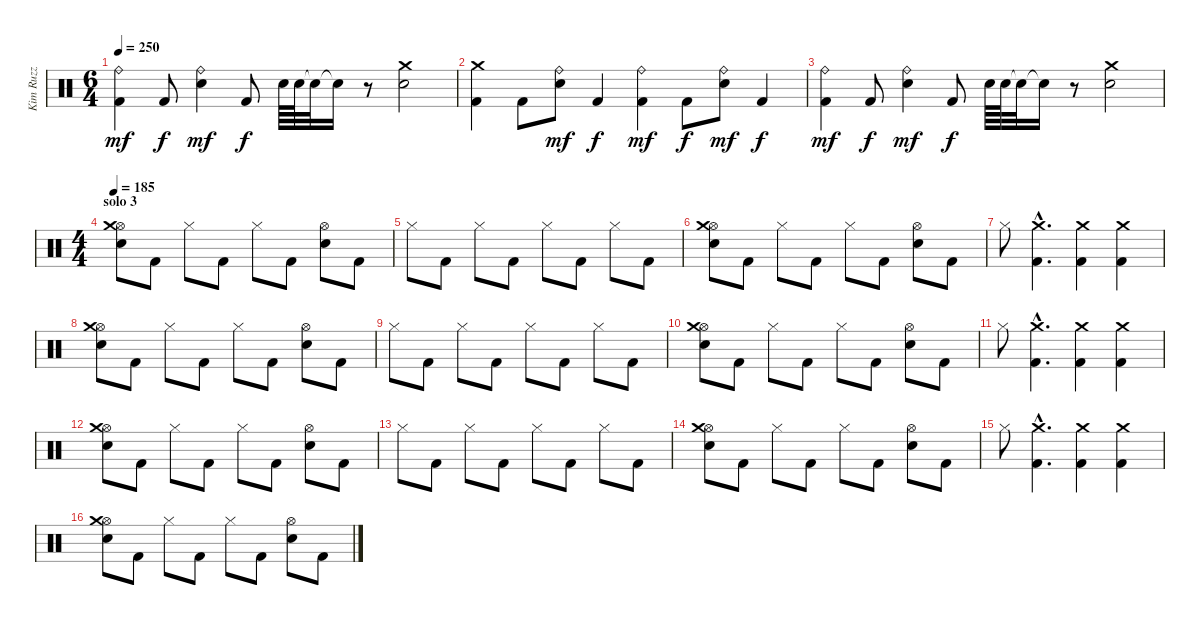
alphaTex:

\track ("Kim Ruzz" "Kim Ruzz") {instrument percussion}
\staff {score}
\articulation defaults
\ts (6 4)
\tempo 250
\clef neutral
\ks c
("Kick (hit) 2" "Ride (bell)").4{dy mf} "Kick (hit) 2".8{dy f} ("Ride (bell)" "Snare (hit) 2").4{dy mf} "Kick (hit) 2".8{dy f} "Snare (hit) 2".64 "Snare (hit) 2".64 "Snare (hit)"{t}.32 "Snare (hit)"{t}.16 r.8 ("Crash medium (hit)" "Snare (hit) 2").2 |
("Kick (hit) 2" "Crash medium (hit)").4 "Kick (hit) 2".8 ("Ride (bell)" "Snare (hit) 2").8{dy mf} "Kick (hit) 2".4{dy f} ("Kick (hit) 2" "Ride (bell)").4{dy mf} "Kick (hit) 2".8{dy f} ("Ride (bell)" "Snare (hit) 2").8{dy mf} "Kick (hit) 2".4{dy f} |
("Kick (hit) 2" "Ride (bell)").4{dy mf} "Kick (hit) 2".8{dy f} ("Ride (bell)" "Snare (hit) 2").4{dy mf} "Kick (hit) 2".8{dy f} "Snare (hit) 2".64 "Snare (hit) 2".64 "Snare (hit)"{t}.32 "Snare (hit)"{t}.16 r.8 ("Crash medium (hit)" "Snare (hit) 2").2 |
\ts (4 4)
\section ("" "solo 3")
\tempo 185
("Hi-Hat (open)" "Crash medium (hit)" "Snare (hit) 2").8 "Kick (hit) 2".8 "Hi-Hat (closed)".8 "Kick (hit) 2".8 "Hi-Hat (closed)".8 "Kick (hit) 2".8 ("Hi-Hat (open)" "Snare (hit) 2").8 "Kick (hit) 2".8 |
"Hi-Hat (closed)".8 "Kick (hit) 2".8 "Hi-Hat (closed)".8 "Kick (hit) 2".8 "Hi-Hat (closed)".8 "Kick (hit) 2".8 "Hi-Hat (closed)".8 "Kick (hit) 2".8 |
("Hi-Hat (open)" "Crash medium (hit)" "Snare (hit) 2").8 "Kick (hit) 2".8 "Hi-Hat (closed)".8 "Kick (hit) 2".8 "Hi-Hat (closed)".8 "Kick (hit) 2".8 ("Hi-Hat (open)" "Snare (hit) 2").8 "Kick (hit) 2".8 |
"Hi-Hat (closed)".8 ("Kick (hit) 2"{hac} "Crash medium (hit)"{hac}).4{d} ("Kick (hit) 2" "Crash medium (hit)").4 ("Kick (hit) 2" "Crash medium (hit)").4 |
("Hi-Hat (open)" "Crash medium (hit)" "Snare (hit) 2").8 "Kick (hit) 2".8 "Hi-Hat (closed)".8 "Kick (hit) 2".8 "Hi-Hat (closed)".8 "Kick (hit) 2".8 ("Hi-Hat (open)" "Snare (hit) 2").8 "Kick (hit) 2".8 |
"Hi-Hat (closed)".8 "Kick (hit) 2".8 "Hi-Hat (closed)".8 "Kick (hit) 2".8 "Hi-Hat (closed)".8 "Kick (hit) 2".8 "Hi-Hat (closed)".8 "Kick (hit) 2".8 |
("Hi-Hat (open)" "Crash medium (hit)" "Snare (hit) 2").8 "Kick (hit) 2".8 "Hi-Hat (closed)".8 "Kick (hit) 2".8 "Hi-Hat (closed)".8 "Kick (hit) 2".8 ("Hi-Hat (open)" "Snare (hit) 2").8 "Kick (hit) 2".8 |
"Hi-Hat (closed)".8 ("Kick (hit) 2"{hac} "Crash medium (hit)"{hac}).4{d} ("Kick (hit) 2" "Crash medium (hit)").4 ("Kick (hit) 2" "Crash medium (hit)").4 |
("Hi-Hat (open)" "Crash medium (hit)" "Snare (hit) 2").8 "Kick (hit) 2".8 "Hi-Hat (closed)".8 "Kick (hit) 2".8 "Hi-Hat (closed)".8 "Kick (hit) 2".8 ("Hi-Hat (open)" "Snare (hit) 2").8 "Kick (hit) 2".8 |
"Hi-Hat (closed)".8 "Kick (hit) 2".8 "Hi-Hat (closed)".8 "Kick (hit) 2".8 "Hi-Hat (closed)".8 "Kick (hit) 2".8 "Hi-Hat (closed)".8 "Kick (hit) 2".8 |
("Hi-Hat (open)" "Crash medium (hit)" "Snare (hit) 2").8 "Kick (hit) 2".8 "Hi-Hat (closed)".8 "Kick (hit) 2".8 "Hi-Hat (closed)".8 "Kick (hit) 2".8 ("Hi-Hat (open)" "Snare (hit) 2").8 "Kick (hit) 2".8 |
"Hi-Hat (closed)".8 ("Kick (hit) 2"{hac} "Crash medium (hit)"{hac}).4{d} ("Kick (hit) 2" "Crash medium (hit)").4 ("Kick (hit) 2" "Crash medium (hit)").4 |
("Hi-Hat (open)" "Crash medium (hit)" "Snare (hit) 2").8 "Kick (hit) 2".8 "Hi-Hat (closed)".8 "Kick (hit) 2".8 "Hi-Hat (closed)".8 "Kick (hit) 2".8 ("Hi-Hat (open)" "Snare (hit) 2").8 "Kick (hit) 2".8
